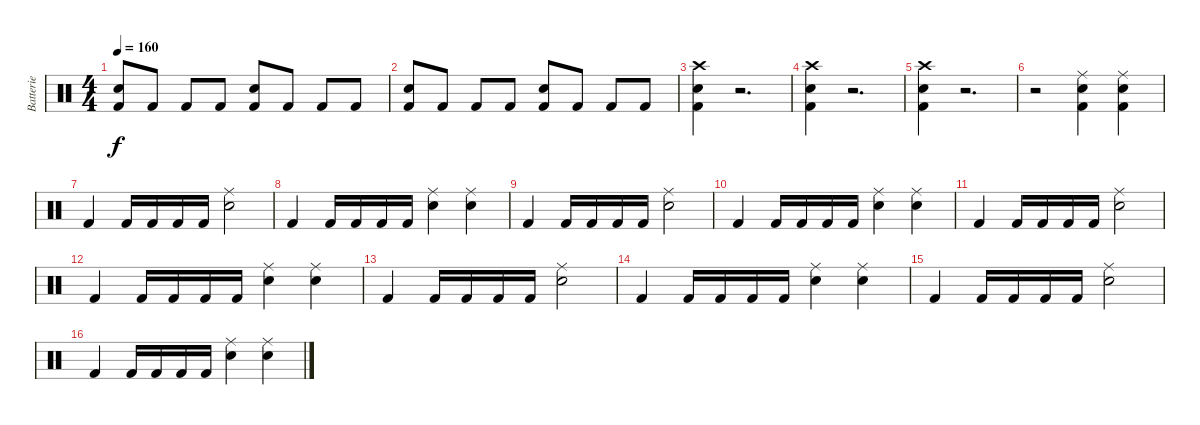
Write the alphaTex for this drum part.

\track ("Batterie" "Batterie") {instrument percussion}
\staff {score}
\articulation defaults
\ts (4 4)
\tempo 160
\clef neutral
\ks c
("Kick (hit) 2" "Snare (hit) 2").8{dy f} "Kick (hit) 2".8 "Kick (hit) 2".8 "Kick (hit) 2".8 ("Kick (hit) 2" "Snare (hit) 2").8 "Kick (hit) 2".8 "Kick (hit) 2".8 "Kick (hit) 2".8 |
("Kick (hit) 2" "Snare (hit) 2").8 "Kick (hit) 2".8 "Kick (hit) 2".8 "Kick (hit) 2".8 ("Kick (hit) 2" "Snare (hit) 2").8 "Kick (hit) 2".8 "Kick (hit) 2".8 "Kick (hit) 2".8 |
\section ("" "")
("Snare (hit) 2" "Kick (hit) 2" "Crash high (hit)").4{volume 13} r.2{d} |
("Snare (hit) 2" "Kick (hit) 2" "Crash high (hit)").4 r.2{d} |
("Snare (hit) 2" "Kick (hit) 2" "Crash high (hit)").4 r.2{d} |
r.2 ("Snare (hit) 2" "Kick (hit) 2" "Ride (middle)").4 ("Ride (middle)" "Kick (hit) 2" "Snare (hit) 2").4 |
"Kick (hit) 2".4{volume 16} "Kick (hit) 2".16 "Kick (hit) 2".16 "Kick (hit) 2".16 "Kick (hit) 2".16 ("Snare (hit) 2" "Ride (middle)").2 |
"Kick (hit) 2".4 "Kick (hit) 2".16 "Kick (hit) 2".16 "Kick (hit) 2".16 "Kick (hit) 2".16 ("Snare (hit) 2" "Ride (middle)").4 ("Snare (hit) 2" "Ride (middle)").4 |
"Kick (hit) 2".4 "Kick (hit) 2".16 "Kick (hit) 2".16 "Kick (hit) 2".16 "Kick (hit) 2".16 ("Snare (hit) 2" "Ride (middle)").2 |
"Kick (hit) 2".4 "Kick (hit) 2".16 "Kick (hit) 2".16 "Kick (hit) 2".16 "Kick (hit) 2".16 ("Snare (hit) 2" "Ride (middle)").4 ("Snare (hit) 2" "Ride (middle)").4 |
"Kick (hit) 2".4 "Kick (hit) 2".16 "Kick (hit) 2".16 "Kick (hit) 2".16 "Kick (hit) 2".16 ("Snare (hit) 2" "Ride (middle)").2 |
"Kick (hit) 2".4 "Kick (hit) 2".16 "Kick (hit) 2".16 "Kick (hit) 2".16 "Kick (hit) 2".16 ("Snare (hit) 2" "Ride (middle)").4 ("Snare (hit) 2" "Ride (middle)").4 |
"Kick (hit) 2".4 "Kick (hit) 2".16 "Kick (hit) 2".16 "Kick (hit) 2".16 "Kick (hit) 2".16 ("Snare (hit) 2" "Ride (middle)").2 |
"Kick (hit) 2".4 "Kick (hit) 2".16 "Kick (hit) 2".16 "Kick (hit) 2".16 "Kick (hit) 2".16 ("Snare (hit) 2" "Ride (middle)").4 ("Snare (hit) 2" "Ride (middle)").4 |
"Kick (hit) 2".4 "Kick (hit) 2".16 "Kick (hit) 2".16 "Kick (hit) 2".16 "Kick (hit) 2".16 ("Snare (hit) 2" "Ride (middle)").2 |
"Kick (hit) 2".4 "Kick (hit) 2".16 "Kick (hit) 2".16 "Kick (hit) 2".16 "Kick (hit) 2".16 ("Snare (hit) 2" "Ride (middle)").4 ("Snare (hit) 2" "Ride (middle)").4
